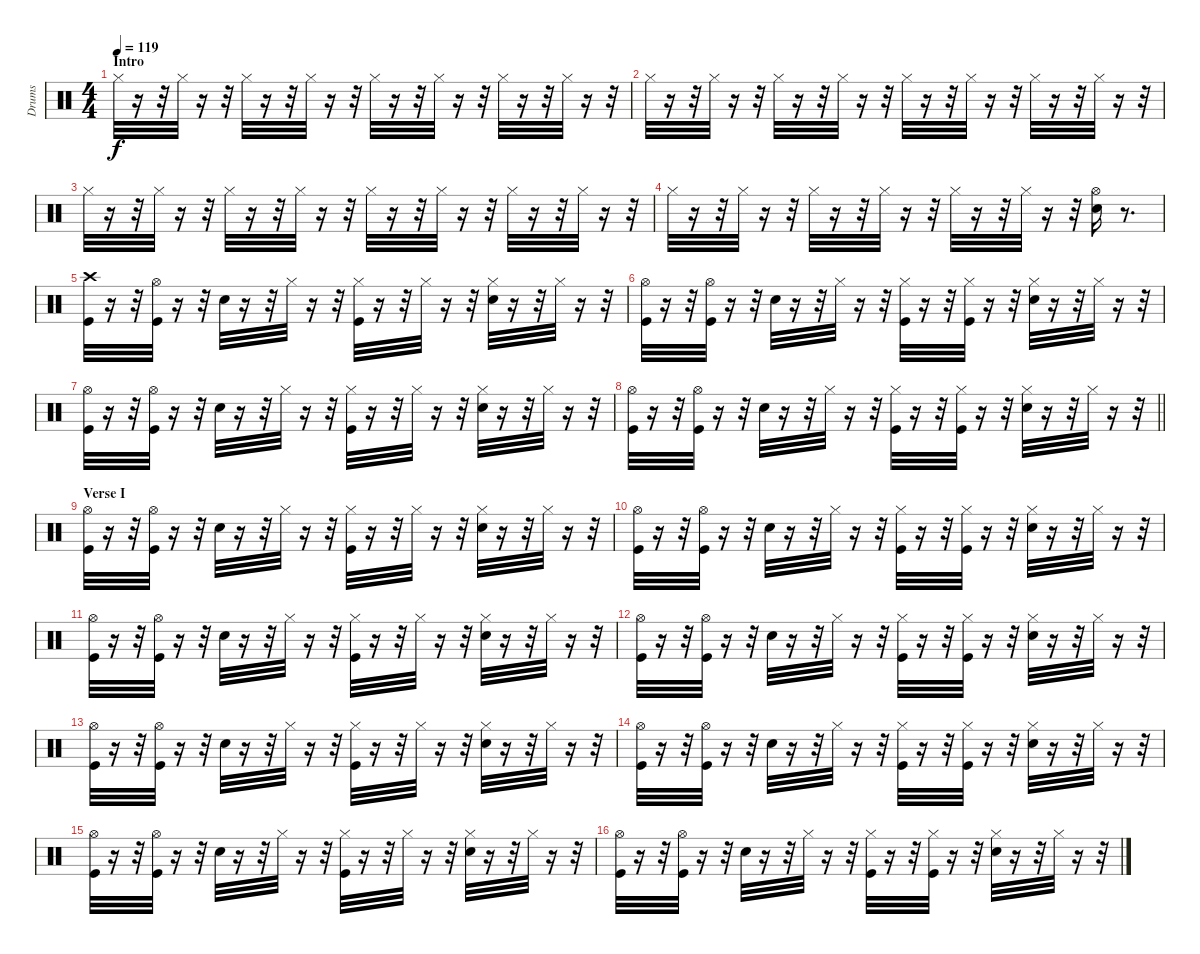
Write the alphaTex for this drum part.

\track ("Drums" "Drums") {instrument percussion}
\staff {score}
\articulation defaults
\ts (4 4)
\section ("" "Intro")
\tempo 119
\clef neutral
\ks c "Hi-Hat (closed)".32{dy f}
r.16 r.32 "Hi-Hat (closed)".32 r.16 r.32 "Hi-Hat (closed)".32 r.16 r.32 "Hi-Hat (closed)".32 r.16 r.32 "Hi-Hat (closed)".32 r.16 r.32 "Hi-Hat (closed)".32 r.16 r.32 "Hi-Hat (closed)".32 r.16 r.32 "Hi-Hat (closed)".32 r.16 r.32 |
"Hi-Hat (closed)".32 r.16 r.32 "Hi-Hat (closed)".32 r.16 r.32 "Hi-Hat (closed)".32 r.16 r.32 "Hi-Hat (closed)".32 r.16 r.32 "Hi-Hat (closed)".32 r.16 r.32 "Hi-Hat (closed)".32 r.16 r.32 "Hi-Hat (closed)".32 r.16 r.32 "Hi-Hat (closed)".32 r.16 r.32 |
"Hi-Hat (closed)".32 r.16 r.32 "Hi-Hat (closed)".32 r.16 r.32 "Hi-Hat (closed)".32 r.16 r.32 "Hi-Hat (closed)".32 r.16 r.32 "Hi-Hat (closed)".32 r.16 r.32 "Hi-Hat (closed)".32 r.16 r.32 "Hi-Hat (closed)".32 r.16 r.32 "Hi-Hat (closed)".32 r.16 r.32 |
"Hi-Hat (closed)".32 r.16 r.32 "Hi-Hat (closed)".32 r.16 r.32 "Hi-Hat (closed)".32 r.16 r.32 "Hi-Hat (closed)".32 r.16 r.32 "Hi-Hat (closed)".32 r.16 r.32 "Hi-Hat (closed)".32 r.16 r.32 ("Electric Snare (hit)" "Hi-Hat (open)").16 r.8{d} |
("Kick (hit)" "Crash high (hit)").32 r.16 r.32 ("Kick (hit)" "Hi-Hat (open)").32 r.16 r.32 "Electric Snare (hit)".32 r.16 r.32 "Hi-Hat (closed)".32 r.16 r.32 ("Kick (hit)" "Hi-Hat (closed)").32 r.16 r.32 "Hi-Hat (closed)".32 r.16 r.32 ("Electric Snare (hit)" "Hi-Hat (closed)").32 r.16 r.32 "Hi-Hat (closed)".32 r.16 r.32 |
("Kick (hit)" "Hi-Hat (open)").32 r.16 r.32 ("Kick (hit)" "Hi-Hat (open)").32 r.16 r.32 "Electric Snare (hit)".32 r.16 r.32 "Hi-Hat (closed)".32 r.16 r.32 ("Kick (hit)" "Hi-Hat (closed)").32 r.16 r.32 ("Kick (hit)" "Hi-Hat (closed)").32 r.16 r.32 ("Electric Snare (hit)" "Hi-Hat (closed)").32 r.16 r.32 "Hi-Hat (closed)".32 r.16 r.32 |
("Kick (hit)" "Hi-Hat (open)").32 r.16 r.32 ("Kick (hit)" "Hi-Hat (open)").32 r.16 r.32 "Electric Snare (hit)".32 r.16 r.32 "Hi-Hat (closed)".32 r.16 r.32 ("Kick (hit)" "Hi-Hat (closed)").32 r.16 r.32 "Hi-Hat (closed)".32 r.16 r.32 ("Electric Snare (hit)" "Hi-Hat (closed)").32 r.16 r.32 "Hi-Hat (closed)".32 r.16 r.32 |
\barLineRight lightlight
("Kick (hit)" "Hi-Hat (open)").32 r.16 r.32 ("Kick (hit)" "Hi-Hat (open)").32 r.16 r.32 "Electric Snare (hit)".32 r.16 r.32 "Hi-Hat (closed)".32 r.16 r.32 ("Kick (hit)" "Hi-Hat (closed)").32 r.16 r.32 ("Kick (hit)" "Hi-Hat (closed)").32 r.16 r.32 ("Electric Snare (hit)" "Hi-Hat (closed)").32 r.16 r.32 "Hi-Hat (closed)".32 r.16 r.32 |
\section ("" "Verse I")
("Kick (hit)" "Hi-Hat (open)").32 r.16 r.32 ("Kick (hit)" "Hi-Hat (open)").32 r.16 r.32 "Electric Snare (hit)".32 r.16 r.32 "Hi-Hat (closed)".32 r.16 r.32 ("Kick (hit)" "Hi-Hat (closed)").32 r.16 r.32 "Hi-Hat (closed)".32 r.16 r.32 ("Electric Snare (hit)" "Hi-Hat (closed)").32 r.16 r.32 "Hi-Hat (closed)".32 r.16 r.32 |
("Kick (hit)" "Hi-Hat (open)").32 r.16 r.32 ("Kick (hit)" "Hi-Hat (open)").32 r.16 r.32 "Electric Snare (hit)".32 r.16 r.32 "Hi-Hat (closed)".32 r.16 r.32 ("Kick (hit)" "Hi-Hat (closed)").32 r.16 r.32 ("Kick (hit)" "Hi-Hat (closed)").32 r.16 r.32 ("Electric Snare (hit)" "Hi-Hat (closed)").32 r.16 r.32 "Hi-Hat (closed)".32 r.16 r.32 |
("Kick (hit)" "Hi-Hat (open)").32 r.16 r.32 ("Kick (hit)" "Hi-Hat (open)").32 r.16 r.32 "Electric Snare (hit)".32 r.16 r.32 "Hi-Hat (closed)".32 r.16 r.32 ("Kick (hit)" "Hi-Hat (closed)").32 r.16 r.32 "Hi-Hat (closed)".32 r.16 r.32 ("Electric Snare (hit)" "Hi-Hat (closed)").32 r.16 r.32 "Hi-Hat (closed)".32 r.16 r.32 |
("Kick (hit)" "Hi-Hat (open)").32 r.16 r.32 ("Kick (hit)" "Hi-Hat (open)").32 r.16 r.32 "Electric Snare (hit)".32 r.16 r.32 "Hi-Hat (closed)".32 r.16 r.32 ("Kick (hit)" "Hi-Hat (closed)").32 r.16 r.32 ("Kick (hit)" "Hi-Hat (closed)").32 r.16 r.32 ("Electric Snare (hit)" "Hi-Hat (closed)").32 r.16 r.32 "Hi-Hat (closed)".32 r.16 r.32 |
("Kick (hit)" "Hi-Hat (open)").32 r.16 r.32 ("Kick (hit)" "Hi-Hat (open)").32 r.16 r.32 "Electric Snare (hit)".32 r.16 r.32 "Hi-Hat (closed)".32 r.16 r.32 ("Kick (hit)" "Hi-Hat (closed)").32 r.16 r.32 "Hi-Hat (closed)".32 r.16 r.32 ("Electric Snare (hit)" "Hi-Hat (closed)").32 r.16 r.32 "Hi-Hat (closed)".32 r.16 r.32 |
("Kick (hit)" "Hi-Hat (open)").32 r.16 r.32 ("Kick (hit)" "Hi-Hat (open)").32 r.16 r.32 "Electric Snare (hit)".32 r.16 r.32 "Hi-Hat (closed)".32 r.16 r.32 ("Kick (hit)" "Hi-Hat (closed)").32 r.16 r.32 ("Kick (hit)" "Hi-Hat (closed)").32 r.16 r.32 ("Electric Snare (hit)" "Hi-Hat (closed)").32 r.16 r.32 "Hi-Hat (closed)".32 r.16 r.32 |
("Kick (hit)" "Hi-Hat (open)").32 r.16 r.32 ("Kick (hit)" "Hi-Hat (open)").32 r.16 r.32 "Electric Snare (hit)".32 r.16 r.32 "Hi-Hat (closed)".32 r.16 r.32 ("Kick (hit)" "Hi-Hat (closed)").32 r.16 r.32 "Hi-Hat (closed)".32 r.16 r.32 ("Electric Snare (hit)" "Hi-Hat (closed)").32 r.16 r.32 "Hi-Hat (closed)".32 r.16 r.32 |
("Kick (hit)" "Hi-Hat (open)").32 r.16 r.32 ("Kick (hit)" "Hi-Hat (open)").32 r.16 r.32 "Electric Snare (hit)".32 r.16 r.32 "Hi-Hat (closed)".32 r.16 r.32 ("Kick (hit)" "Hi-Hat (closed)").32 r.16 r.32 ("Kick (hit)" "Hi-Hat (closed)").32 r.16 r.32 ("Electric Snare (hit)" "Hi-Hat (closed)").32 r.16 r.32 "Hi-Hat (closed)".32 r.16 r.32
